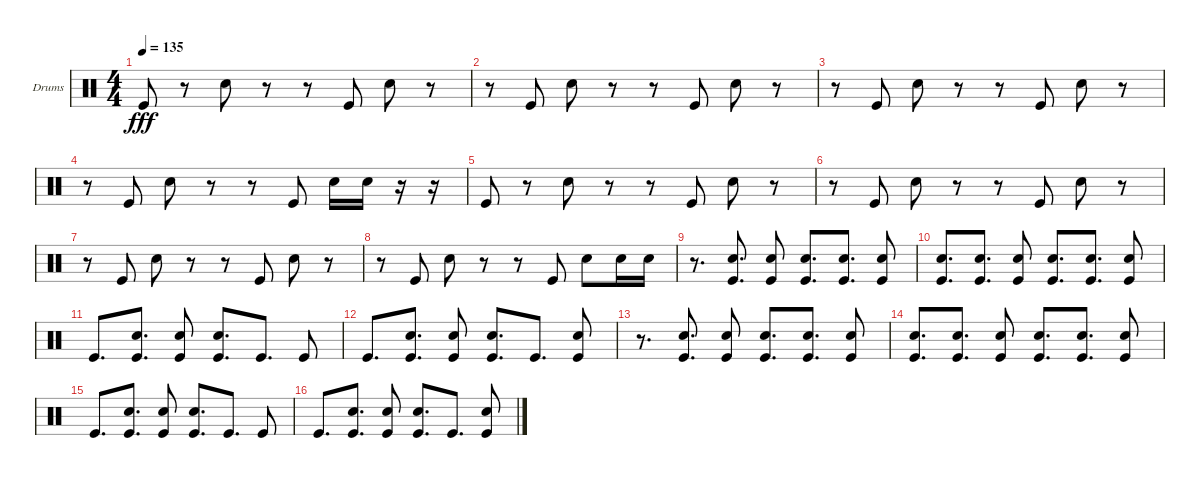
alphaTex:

\defaultSystemsLayout 4
\bracketExtendMode groupsimilarinstruments
\firstSystemTrackNameOrientation horizontal
\otherSystemsTrackNameOrientation horizontal
\track ("Matt Helders" "Drums") {instrument percussion}
\staff {score}
\articulation defaults
\ts (4 4)
\tempo 135
\clef neutral
\ks c "Kick (hit)".8{dy fff}
r.8 "Snare (hit) 2".8 r.8 r.8 "Kick (hit)".8 "Snare (hit) 2".8 r.8 |
r.8 "Kick (hit)".8 "Snare (hit) 2".8 r.8 r.8 "Kick (hit)".8 "Snare (hit) 2".8 r.8 |
r.8 "Kick (hit)".8 "Snare (hit) 2".8 r.8 r.8 "Kick (hit)".8 "Snare (hit) 2".8 r.8 |
r.8 "Kick (hit)".8 "Snare (hit) 2".8 r.8 r.8 "Kick (hit)".8 "Snare (hit) 2".16 "Snare (hit) 2".16 r.16 r.16 |
"Kick (hit)".8 r.8 "Snare (hit) 2".8 r.8 r.8 "Kick (hit)".8 "Snare (hit) 2".8 r.8 |
r.8 "Kick (hit)".8 "Snare (hit) 2".8 r.8 r.8 "Kick (hit)".8 "Snare (hit) 2".8 r.8 |
r.8 "Kick (hit)".8 "Snare (hit) 2".8 r.8 r.8 "Kick (hit)".8 "Snare (hit) 2".8 r.8 |
r.8 "Kick (hit)".8 "Snare (hit) 2".8 r.8 r.8 "Kick (hit)".8 "Snare (hit) 2".8 "Snare (hit) 2".16 "Snare (hit) 2".16 |
r.8{d} ("Snare (hit) 2" "Kick (hit)").8{d} ("Snare (hit) 2" "Kick (hit)").8 ("Snare (hit) 2" "Kick (hit)").8{d} ("Snare (hit) 2" "Kick (hit)").8{d} ("Snare (hit) 2" "Kick (hit)").8 |
("Snare (hit) 2" "Kick (hit)").8{d} ("Snare (hit) 2" "Kick (hit)").8{d} ("Snare (hit) 2" "Kick (hit)").8 ("Snare (hit) 2" "Kick (hit)").8{d} ("Snare (hit) 2" "Kick (hit)").8{d} ("Snare (hit) 2" "Kick (hit)").8 |
"Kick (hit)".8{d} ("Snare (hit) 2" "Kick (hit)").8{d} ("Snare (hit) 2" "Kick (hit)").8 ("Snare (hit) 2" "Kick (hit)").8{d} "Kick (hit)".8{d} "Kick (hit)".8 |
"Kick (hit)".8{d} ("Snare (hit) 2" "Kick (hit)").8{d} ("Snare (hit) 2" "Kick (hit)").8 ("Snare (hit) 2" "Kick (hit)").8{d} "Kick (hit)".8{d} ("Kick (hit)" "Snare (hit) 2").8 |
r.8{d} ("Snare (hit) 2" "Kick (hit)").8{d} ("Snare (hit) 2" "Kick (hit)").8 ("Snare (hit) 2" "Kick (hit)").8{d} ("Snare (hit) 2" "Kick (hit)").8{d} ("Snare (hit) 2" "Kick (hit)").8 |
("Snare (hit) 2" "Kick (hit)").8{d} ("Snare (hit) 2" "Kick (hit)").8{d} ("Snare (hit) 2" "Kick (hit)").8 ("Snare (hit) 2" "Kick (hit)").8{d} ("Snare (hit) 2" "Kick (hit)").8{d} ("Snare (hit) 2" "Kick (hit)").8 |
"Kick (hit)".8{d} ("Snare (hit) 2" "Kick (hit)").8{d} ("Snare (hit) 2" "Kick (hit)").8 ("Snare (hit) 2" "Kick (hit)").8{d} "Kick (hit)".8{d} "Kick (hit)".8 |
"Kick (hit)".8{d} ("Snare (hit) 2" "Kick (hit)").8{d} ("Snare (hit) 2" "Kick (hit)").8 ("Snare (hit) 2" "Kick (hit)").8{d} "Kick (hit)".8{d} ("Kick (hit)" "Snare (hit) 2").8
